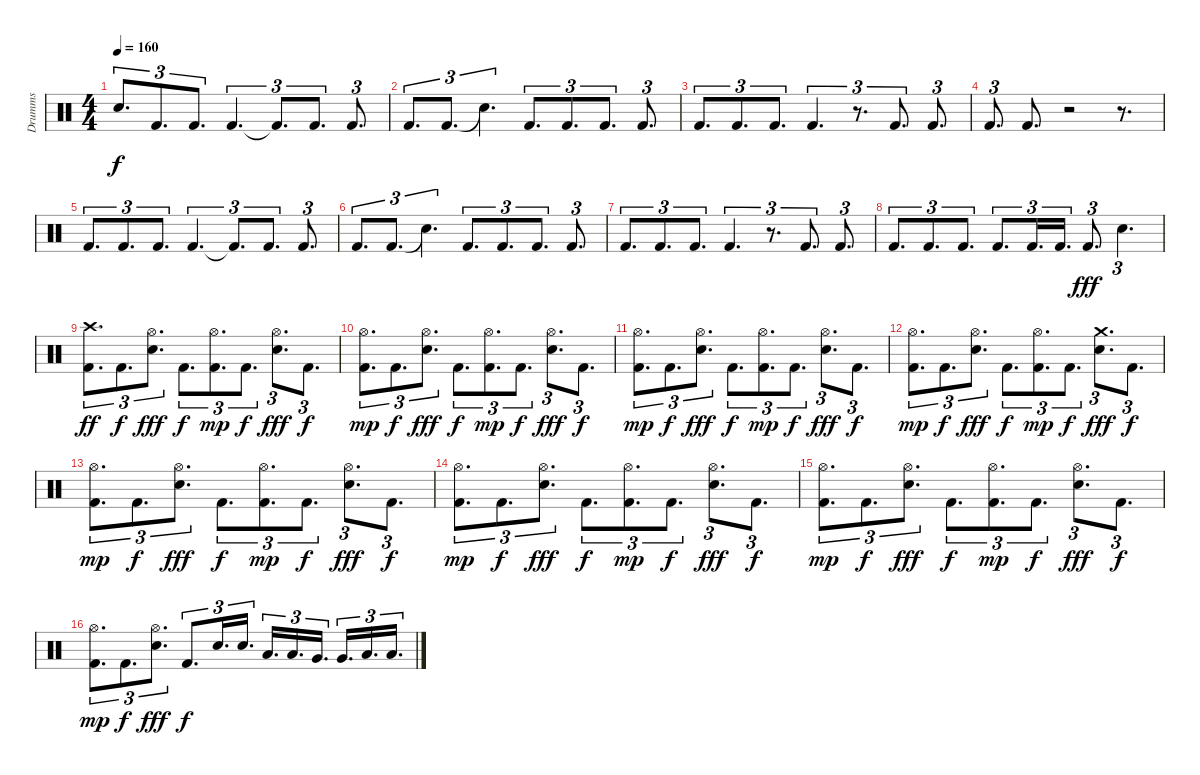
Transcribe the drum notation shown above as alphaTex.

\track ("Drumms" "Drumms") {instrument percussion}
\staff {score}
\articulation defaults
\ts (4 4)
\section ("" "")
\tempo 160
\clef neutral
\ks c "Electric Snare (hit)".8{d tu (3 2) dy f} "Kick (hit) 2".8{d tu (3 2)} "Kick (hit) 2".8{d tu (3 2)} "Kick (hit) 2".4{d tu (3 2)} "Kick (hit) 2"{t}.8{d tu (3 2)} "Kick (hit) 2".8{d tu (3 2)} "Kick (hit) 2".8{d tu (3 2)}
|
"Kick (hit) 2".8{d tu (3 2)} "Kick (hit) 2".8{d tu (3 2)} "Snare (hit)"{t}.4{d tu (3 2)} "Kick (hit) 2".8{d tu (3 2)} "Kick (hit) 2".8{d tu (3 2)} "Kick (hit) 2".8{d tu (3 2)} "Kick (hit) 2".8{d tu (3 2)} |
"Kick (hit) 2".8{d tu (3 2)} "Kick (hit) 2".8{d tu (3 2)} "Kick (hit) 2".8{d tu (3 2)} "Kick (hit) 2".4{d tu (3 2)} r.8{d tu (3 2)} "Kick (hit) 2".8{d tu (3 2)} "Kick (hit) 2".8{d tu (3 2)} |
"Kick (hit) 2".8{d tu (3 2)} "Kick (hit) 2".8{d} r.2 r.8{d} |
"Kick (hit) 2".8{d tu (3 2)} "Kick (hit) 2".8{d tu (3 2)} "Kick (hit) 2".8{d tu (3 2)} "Kick (hit) 2".4{d tu (3 2)} "Kick (hit) 2"{t}.8{d tu (3 2)} "Kick (hit) 2".8{d tu (3 2)} "Kick (hit) 2".8{d tu (3 2)} |
"Kick (hit) 2".8{d tu (3 2)} "Kick (hit) 2".8{d tu (3 2)} "Snare (hit)"{t}.4{d tu (3 2)} "Kick (hit) 2".8{d tu (3 2)} "Kick (hit) 2".8{d tu (3 2)} "Kick (hit) 2".8{d tu (3 2)} "Kick (hit) 2".8{d tu (3 2)} |
"Kick (hit) 2".8{d tu (3 2)} "Kick (hit) 2".8{d tu (3 2)} "Kick (hit) 2".8{d tu (3 2)} "Kick (hit) 2".4{d tu (3 2)} r.8{d tu (3 2)} "Kick (hit) 2".8{d tu (3 2)} "Kick (hit) 2".8{d tu (3 2)} |
"Kick (hit) 2".8{d tu (3 2)} "Kick (hit) 2".8{d tu (3 2)} "Kick (hit) 2".8{d tu (3 2)} "Kick (hit) 2".8{d tu (3 2)} "Kick (hit) 2".16{d tu (3 2)} "Kick (hit) 2".16{d tu (3 2)} "Kick (hit) 2".8{d tu (3 2) dy fff} "Electric Snare (hit)".4{d tu (3 2)} |
\section ("" "")
("Crash high (hit)" "Kick (hit) 2").8{d tu (3 2) dy ff} "Kick (hit) 2".8{d tu (3 2) dy f} ("Hi-Hat (open)" "Electric Snare (hit)").8{d tu (3 2) dy fff} "Kick (hit) 2".8{d tu (3 2) dy f} ("Hi-Hat (open)" "Kick (hit) 2").8{d tu (3 2) dy mp} "Kick (hit) 2".8{d tu (3 2) dy f} ("Hi-Hat (open)" "Electric Snare (hit)").8{d tu (3 2) dy fff} "Kick (hit) 2".8{d tu (3 2) dy f} |
("Hi-Hat (open)" "Kick (hit) 2").8{d tu (3 2) dy mp} "Kick (hit) 2".8{d tu (3 2) dy f} ("Hi-Hat (open)" "Electric Snare (hit)").8{d tu (3 2) dy fff} "Kick (hit) 2".8{d tu (3 2) dy f} ("Hi-Hat (open)" "Kick (hit) 2").8{d tu (3 2) dy mp} "Kick (hit) 2".8{d tu (3 2) dy f} ("Hi-Hat (open)" "Electric Snare (hit)").8{d tu (3 2) dy fff} "Kick (hit) 2".8{d tu (3 2) dy f} |
("Hi-Hat (open)" "Kick (hit) 2").8{d tu (3 2) dy mp} "Kick (hit) 2".8{d tu (3 2) dy f} ("Hi-Hat (open)" "Electric Snare (hit)").8{d tu (3 2) dy fff} "Kick (hit) 2".8{d tu (3 2) dy f} ("Hi-Hat (open)" "Kick (hit) 2").8{d tu (3 2) dy mp} "Kick (hit) 2".8{d tu (3 2) dy f} ("Hi-Hat (open)" "Electric Snare (hit)").8{d tu (3 2) dy fff} "Kick (hit) 2".8{d tu (3 2) dy f} |
("Hi-Hat (open)" "Kick (hit) 2").8{d tu (3 2) dy mp} "Kick (hit) 2".8{d tu (3 2) dy f} ("Hi-Hat (open)" "Electric Snare (hit)").8{d tu (3 2) dy fff} "Kick (hit) 2".8{d tu (3 2) dy f} ("Hi-Hat (open)" "Kick (hit) 2").8{d tu (3 2) dy mp} "Kick (hit) 2".8{d tu (3 2) dy f} ("Crash medium (hit)" "Electric Snare (hit)").8{d tu (3 2) dy fff} "Kick (hit) 2".8{d tu (3 2) dy f} |
("Hi-Hat (open)" "Kick (hit) 2").8{d tu (3 2) dy mp} "Kick (hit) 2".8{d tu (3 2) dy f} ("Hi-Hat (open)" "Electric Snare (hit)").8{d tu (3 2) dy fff} "Kick (hit) 2".8{d tu (3 2) dy f} ("Hi-Hat (open)" "Kick (hit) 2").8{d tu (3 2) dy mp} "Kick (hit) 2".8{d tu (3 2) dy f} ("Hi-Hat (open)" "Electric Snare (hit)").8{d tu (3 2) dy fff} "Kick (hit) 2".8{d tu (3 2) dy f} |
("Hi-Hat (open)" "Kick (hit) 2").8{d tu (3 2) dy mp} "Kick (hit) 2".8{d tu (3 2) dy f} ("Hi-Hat (open)" "Electric Snare (hit)").8{d tu (3 2) dy fff} "Kick (hit) 2".8{d tu (3 2) dy f} ("Hi-Hat (open)" "Kick (hit) 2").8{d tu (3 2) dy mp} "Kick (hit) 2".8{d tu (3 2) dy f} ("Hi-Hat (open)" "Electric Snare (hit)").8{d tu (3 2) dy fff} "Kick (hit) 2".8{d tu (3 2) dy f} |
("Hi-Hat (open)" "Kick (hit) 2").8{d tu (3 2) dy mp} "Kick (hit) 2".8{d tu (3 2) dy f} ("Hi-Hat (open)" "Electric Snare (hit)").8{d tu (3 2) dy fff} "Kick (hit) 2".8{d tu (3 2) dy f} ("Hi-Hat (open)" "Kick (hit) 2").8{d tu (3 2) dy mp} "Kick (hit) 2".8{d tu (3 2) dy f} ("Hi-Hat (open)" "Electric Snare (hit)").8{d tu (3 2) dy fff} "Kick (hit) 2".8{d tu (3 2) dy f} |
("Hi-Hat (open)" "Kick (hit) 2").8{d tu (3 2) dy mp} "Kick (hit) 2".8{d tu (3 2) dy f} ("Hi-Hat (open)" "Electric Snare (hit)").8{d tu (3 2) dy fff} "Kick (hit) 2".8{d tu (3 2) dy f} "Electric Snare (hit)".16{d tu (3 2)} "Electric Snare (hit)".16{d tu (3 2)} "Low Tom (hit)".16{d tu (3 2)} "Low Tom (hit)".16{d tu (3 2)} "Very Low Tom (hit)".16{d tu (3 2)} "Very Low Tom (hit)".16{d tu (3 2)} "Low Floor Tom (hit)".16{d tu (3 2)} "Low Floor Tom (hit)".16{d tu (3 2)}
